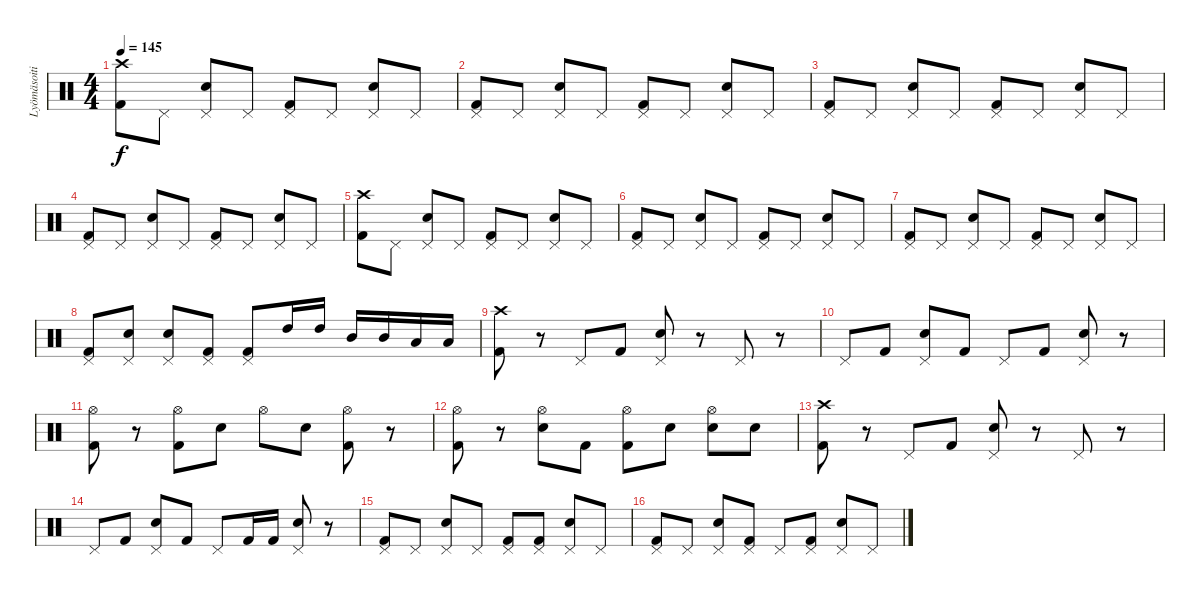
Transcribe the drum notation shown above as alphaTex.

\track ("Lyömäsoitin" "Lyömäsoiti") {instrument percussion}
\staff {score}
\articulation defaults
\ts (4 4)
\tempo 145
\clef neutral
\ks c
("Crash high (hit)" "Kick (hit) 2").8{dy f} "Pedal Hi-Hat (hit)".8 ("Pedal Hi-Hat (hit)" "Electric Snare (hit)").8 "Pedal Hi-Hat (hit)".8 ("Pedal Hi-Hat (hit)" "Kick (hit) 2").8 "Pedal Hi-Hat (hit)".8 ("Pedal Hi-Hat (hit)" "Electric Snare (hit)").8 "Pedal Hi-Hat (hit)".8 |
("Pedal Hi-Hat (hit)" "Kick (hit) 2").8 "Pedal Hi-Hat (hit)".8 ("Pedal Hi-Hat (hit)" "Electric Snare (hit)").8 "Pedal Hi-Hat (hit)".8 ("Pedal Hi-Hat (hit)" "Kick (hit) 2").8 "Pedal Hi-Hat (hit)".8 ("Pedal Hi-Hat (hit)" "Electric Snare (hit)").8 "Pedal Hi-Hat (hit)".8 |
("Pedal Hi-Hat (hit)" "Kick (hit) 2").8 "Pedal Hi-Hat (hit)".8 ("Pedal Hi-Hat (hit)" "Electric Snare (hit)").8 "Pedal Hi-Hat (hit)".8 ("Pedal Hi-Hat (hit)" "Kick (hit) 2").8 "Pedal Hi-Hat (hit)".8 ("Pedal Hi-Hat (hit)" "Electric Snare (hit)").8 "Pedal Hi-Hat (hit)".8 |
("Pedal Hi-Hat (hit)" "Kick (hit) 2").8 "Pedal Hi-Hat (hit)".8 ("Pedal Hi-Hat (hit)" "Electric Snare (hit)").8 "Pedal Hi-Hat (hit)".8 ("Pedal Hi-Hat (hit)" "Kick (hit) 2").8 "Pedal Hi-Hat (hit)".8 ("Pedal Hi-Hat (hit)" "Electric Snare (hit)").8 "Pedal Hi-Hat (hit)".8 |
("Crash high (hit)" "Kick (hit) 2").8 "Pedal Hi-Hat (hit)".8 ("Pedal Hi-Hat (hit)" "Electric Snare (hit)").8 "Pedal Hi-Hat (hit)".8 ("Pedal Hi-Hat (hit)" "Kick (hit) 2").8 "Pedal Hi-Hat (hit)".8 ("Pedal Hi-Hat (hit)" "Electric Snare (hit)").8 "Pedal Hi-Hat (hit)".8 |
("Pedal Hi-Hat (hit)" "Kick (hit) 2").8 "Pedal Hi-Hat (hit)".8 ("Pedal Hi-Hat (hit)" "Electric Snare (hit)").8 "Pedal Hi-Hat (hit)".8 ("Pedal Hi-Hat (hit)" "Kick (hit) 2").8 "Pedal Hi-Hat (hit)".8 ("Pedal Hi-Hat (hit)" "Electric Snare (hit)").8 "Pedal Hi-Hat (hit)".8 |
("Pedal Hi-Hat (hit)" "Kick (hit) 2").8 "Pedal Hi-Hat (hit)".8 ("Pedal Hi-Hat (hit)" "Electric Snare (hit)").8 "Pedal Hi-Hat (hit)".8 ("Pedal Hi-Hat (hit)" "Kick (hit) 2").8 "Pedal Hi-Hat (hit)".8 ("Pedal Hi-Hat (hit)" "Electric Snare (hit)").8 "Pedal Hi-Hat (hit)".8 |
("Pedal Hi-Hat (hit)" "Kick (hit) 2").8 ("Pedal Hi-Hat (hit)" "Electric Snare (hit)").8 ("Pedal Hi-Hat (hit)" "Electric Snare (hit)").8 ("Pedal Hi-Hat (hit)" "Kick (hit) 2").8 ("Pedal Hi-Hat (hit)" "Kick (hit) 2").8 "High Tom (hit)".16 "High Tom (hit)".16 "Mid Tom (hit)".16 "Mid Tom (hit)".16 "Low Tom (hit)".16 "Low Tom (hit)".16 |
("Crash high (hit)" "Kick (hit) 2").8 r.8 "Pedal Hi-Hat (hit)".8 "Kick (hit) 2".8 ("Pedal Hi-Hat (hit)" "Electric Snare (hit)").8 r.8 "Pedal Hi-Hat (hit)".8 r.8 |
"Pedal Hi-Hat (hit)".8 "Kick (hit) 2".8 ("Pedal Hi-Hat (hit)" "Electric Snare (hit)").8 "Kick (hit) 2".8 "Pedal Hi-Hat (hit)".8 "Kick (hit) 2".8 ("Pedal Hi-Hat (hit)" "Electric Snare (hit)").8 r.8 |
("Hi-Hat (open)" "Kick (hit) 2").8 r.8 ("Hi-Hat (open)" "Kick (hit) 2").8 "Electric Snare (hit)".8 "Hi-Hat (open)".8 "Electric Snare (hit)".8 ("Hi-Hat (open)" "Kick (hit) 2").8 r.8 |
("Hi-Hat (open)" "Kick (hit) 2").8 r.8 ("Hi-Hat (open)" "Electric Snare (hit)").8 "Kick (hit) 2".8 ("Hi-Hat (open)" "Kick (hit) 2").8 "Electric Snare (hit)".8 ("Hi-Hat (open)" "Electric Snare (hit)").8 "Electric Snare (hit)".8 |
("Crash high (hit)" "Kick (hit) 2").8 r.8 "Pedal Hi-Hat (hit)".8 "Kick (hit) 2".8 ("Pedal Hi-Hat (hit)" "Electric Snare (hit)").8 r.8 "Pedal Hi-Hat (hit)".8 r.8 |
"Pedal Hi-Hat (hit)".8 "Kick (hit) 2".8 ("Pedal Hi-Hat (hit)" "Electric Snare (hit)").8 "Kick (hit) 2".8 "Pedal Hi-Hat (hit)".8 "Kick (hit) 2".16 "Kick (hit) 2".16 ("Pedal Hi-Hat (hit)" "Electric Snare (hit)").8 r.8 |
("Pedal Hi-Hat (hit)" "Kick (hit) 2").8 "Pedal Hi-Hat (hit)".8 ("Pedal Hi-Hat (hit)" "Electric Snare (hit)").8 "Pedal Hi-Hat (hit)".8 ("Pedal Hi-Hat (hit)" "Kick (hit) 2").8 ("Pedal Hi-Hat (hit)" "Kick (hit) 2").8 ("Pedal Hi-Hat (hit)" "Electric Snare (hit)").8 "Pedal Hi-Hat (hit)".8 |
("Pedal Hi-Hat (hit)" "Kick (hit) 2").8 "Pedal Hi-Hat (hit)".8 ("Pedal Hi-Hat (hit)" "Electric Snare (hit)").8 ("Pedal Hi-Hat (hit)" "Kick (hit) 2").8 "Pedal Hi-Hat (hit)".8 ("Pedal Hi-Hat (hit)" "Kick (hit) 2").8 ("Pedal Hi-Hat (hit)" "Electric Snare (hit)").8 "Pedal Hi-Hat (hit)".8
